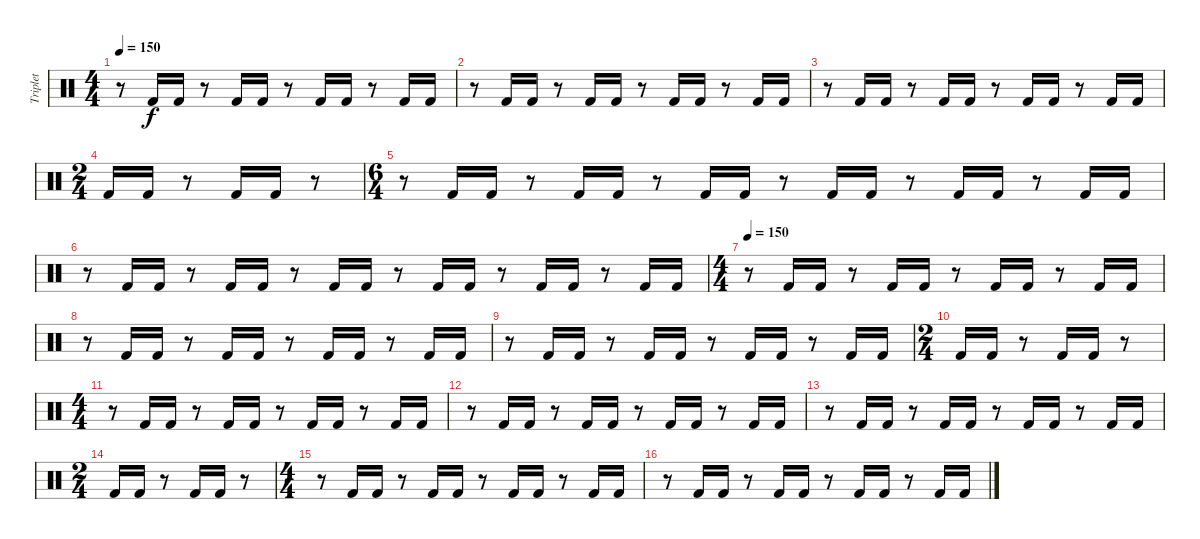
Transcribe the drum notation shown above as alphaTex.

\track ("Triplet" "Triplet") {instrument percussion}
\staff {score}
\articulation defaults
\ts (4 4)
\tempo 150
\clef neutral
\ks c
r.8{dy f} "Kick (hit) 2".16 "Kick (hit) 2".16 r.8 "Kick (hit) 2".16 "Kick (hit) 2".16 r.8 "Kick (hit) 2".16 "Kick (hit) 2".16 r.8 "Kick (hit) 2".16 "Kick (hit) 2".16 |
r.8 "Kick (hit) 2".16 "Kick (hit) 2".16 r.8 "Kick (hit) 2".16 "Kick (hit) 2".16 r.8 "Kick (hit) 2".16 "Kick (hit) 2".16 r.8 "Kick (hit) 2".16 "Kick (hit) 2".16 |
r.8 "Kick (hit) 2".16 "Kick (hit) 2".16 r.8 "Kick (hit) 2".16 "Kick (hit) 2".16 r.8 "Kick (hit) 2".16 "Kick (hit) 2".16 r.8 "Kick (hit) 2".16 "Kick (hit) 2".16 |
\ts (2 4)
"Kick (hit) 2".16 "Kick (hit) 2".16 r.8 "Kick (hit) 2".16 "Kick (hit) 2".16 r.8 |
\ts (6 4)
r.8 "Kick (hit) 2".16 "Kick (hit) 2".16 r.8 "Kick (hit) 2".16 "Kick (hit) 2".16 r.8 "Kick (hit) 2".16 "Kick (hit) 2".16 r.8 "Kick (hit) 2".16 "Kick (hit) 2".16 r.8 "Kick (hit) 2".16 "Kick (hit) 2".16 r.8 "Kick (hit) 2".16 "Kick (hit) 2".16 |
r.8 "Kick (hit) 2".16 "Kick (hit) 2".16 r.8 "Kick (hit) 2".16 "Kick (hit) 2".16 r.8 "Kick (hit) 2".16 "Kick (hit) 2".16 r.8 "Kick (hit) 2".16 "Kick (hit) 2".16 r.8 "Kick (hit) 2".16 "Kick (hit) 2".16 r.8 "Kick (hit) 2".16 "Kick (hit) 2".16 |
\ts (4 4)
\tempo 150
r.8 "Kick (hit) 2".16 "Kick (hit) 2".16 r.8 "Kick (hit) 2".16 "Kick (hit) 2".16 r.8 "Kick (hit) 2".16 "Kick (hit) 2".16 r.8 "Kick (hit) 2".16 "Kick (hit) 2".16 |
r.8 "Kick (hit) 2".16 "Kick (hit) 2".16 r.8 "Kick (hit) 2".16 "Kick (hit) 2".16 r.8 "Kick (hit) 2".16 "Kick (hit) 2".16 r.8 "Kick (hit) 2".16 "Kick (hit) 2".16 |
r.8 "Kick (hit) 2".16 "Kick (hit) 2".16 r.8 "Kick (hit) 2".16 "Kick (hit) 2".16 r.8 "Kick (hit) 2".16 "Kick (hit) 2".16 r.8 "Kick (hit) 2".16 "Kick (hit) 2".16 |
\ts (2 4)
"Kick (hit) 2".16 "Kick (hit) 2".16 r.8 "Kick (hit) 2".16 "Kick (hit) 2".16 r.8 |
\ts (4 4)
r.8 "Kick (hit) 2".16 "Kick (hit) 2".16 r.8 "Kick (hit) 2".16 "Kick (hit) 2".16 r.8 "Kick (hit) 2".16 "Kick (hit) 2".16 r.8 "Kick (hit) 2".16 "Kick (hit) 2".16 |
r.8 "Kick (hit) 2".16 "Kick (hit) 2".16 r.8 "Kick (hit) 2".16 "Kick (hit) 2".16 r.8 "Kick (hit) 2".16 "Kick (hit) 2".16 r.8 "Kick (hit) 2".16 "Kick (hit) 2".16 |
r.8 "Kick (hit) 2".16 "Kick (hit) 2".16 r.8 "Kick (hit) 2".16 "Kick (hit) 2".16 r.8 "Kick (hit) 2".16 "Kick (hit) 2".16 r.8 "Kick (hit) 2".16 "Kick (hit) 2".16 |
\ts (2 4)
"Kick (hit) 2".16 "Kick (hit) 2".16 r.8 "Kick (hit) 2".16 "Kick (hit) 2".16 r.8 |
\ts (4 4)
r.8 "Kick (hit) 2".16 "Kick (hit) 2".16 r.8 "Kick (hit) 2".16 "Kick (hit) 2".16 r.8 "Kick (hit) 2".16 "Kick (hit) 2".16 r.8 "Kick (hit) 2".16 "Kick (hit) 2".16 |
r.8 "Kick (hit) 2".16 "Kick (hit) 2".16 r.8 "Kick (hit) 2".16 "Kick (hit) 2".16 r.8 "Kick (hit) 2".16 "Kick (hit) 2".16 r.8 "Kick (hit) 2".16 "Kick (hit) 2".16
